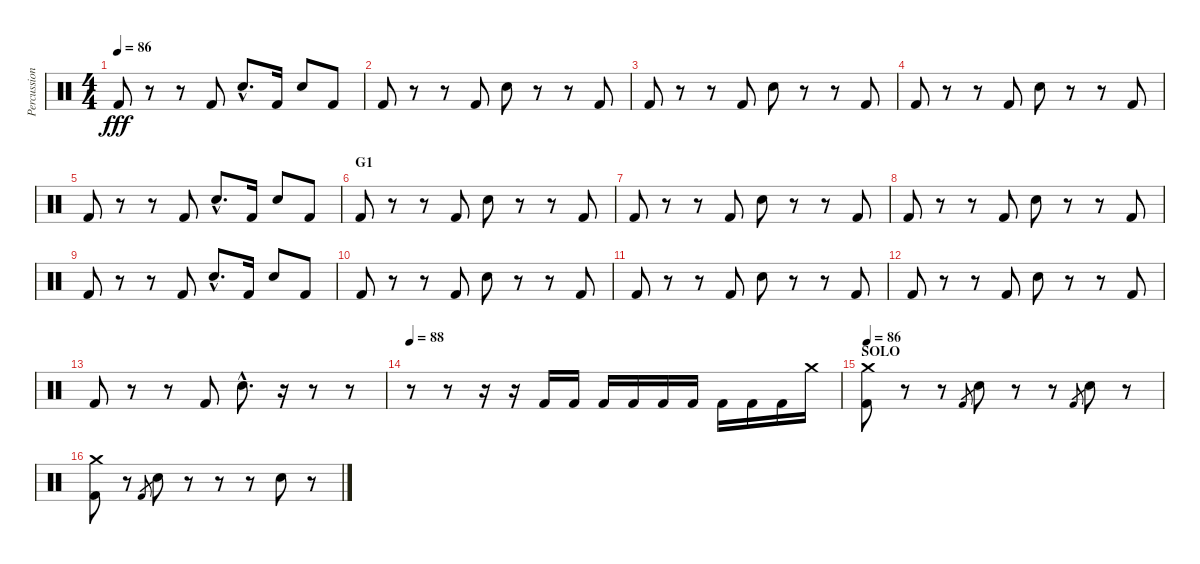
\track ("Percussion" "Percussion") {instrument percussion}
\staff {score}
\articulation defaults
\ts (4 4)
\tempo 86
\clef neutral
\ks c "Kick (hit) 2".8{dy fff}
r.8 r.8 "Kick (hit) 2".8 "Electric Snare (hit)"{hac}.8{d} "Kick (hit) 2".16 "Electric Snare (hit)".8 "Kick (hit) 2".8 |
"Kick (hit) 2".8 r.8 r.8 "Kick (hit) 2".8 "Electric Snare (hit)".8 r.8 r.8 "Kick (hit) 2".8 |
"Kick (hit) 2".8 r.8 r.8 "Kick (hit) 2".8 "Electric Snare (hit)".8 r.8 r.8 "Kick (hit) 2".8 |
"Kick (hit) 2".8 r.8 r.8 "Kick (hit) 2".8 "Electric Snare (hit)".8 r.8 r.8 "Kick (hit) 2".8 |
"Kick (hit) 2".8 r.8 r.8 "Kick (hit) 2".8 "Electric Snare (hit)"{hac}.8{d} "Kick (hit) 2".16 "Electric Snare (hit)".8 "Kick (hit) 2".8 |
\section ("" "G1")
"Kick (hit) 2".8 r.8 r.8 "Kick (hit) 2".8 "Electric Snare (hit)".8 r.8 r.8 "Kick (hit) 2".8 |
"Kick (hit) 2".8 r.8 r.8 "Kick (hit) 2".8 "Electric Snare (hit)".8 r.8 r.8 "Kick (hit) 2".8 |
"Kick (hit) 2".8 r.8 r.8 "Kick (hit) 2".8 "Electric Snare (hit)".8 r.8 r.8 "Kick (hit) 2".8 |
"Kick (hit) 2".8 r.8 r.8 "Kick (hit) 2".8 "Electric Snare (hit)"{hac}.8{d} "Kick (hit) 2".16 "Electric Snare (hit)".8 "Kick (hit) 2".8 |
"Kick (hit) 2".8 r.8 r.8 "Kick (hit) 2".8 "Electric Snare (hit)".8 r.8 r.8 "Kick (hit) 2".8 |
"Kick (hit) 2".8 r.8 r.8 "Kick (hit) 2".8 "Electric Snare (hit)".8 r.8 r.8 "Kick (hit) 2".8 |
"Kick (hit) 2".8 r.8 r.8 "Kick (hit) 2".8 "Electric Snare (hit)".8 r.8 r.8 "Kick (hit) 2".8 |
"Kick (hit) 2".8 r.8 r.8 "Kick (hit) 2".8 "Electric Snare (hit)"{hac}.8{d} r.16 r.8 r.8 |
\tempo 88
r.8 r.8 r.16 r.16 "Kick (hit) 2".16 "Kick (hit) 2".16 "Kick (hit) 2".16 "Kick (hit) 2".16 "Kick (hit) 2".16 "Kick (hit) 2".16 "Kick (hit) 2".16 "Kick (hit) 2".16 "Kick (hit) 2".16 "Crash medium (hit)".16 |
\section ("" "SOLO")
\tempo 86
("Kick (hit) 2" "Crash medium (hit)").8 r.8 r.8 "Kick (hit) 2".8{gr} "Electric Snare (hit)".8 r.8 r.8 "Kick (hit) 2".8{gr} "Electric Snare (hit)".8 r.8 |
("Kick (hit) 2" "Crash medium (hit)").8 r.8 "Kick (hit) 2".8{gr} "Electric Snare (hit)".8 r.8 r.8 r.8 "Electric Snare (hit)".8 r.8
